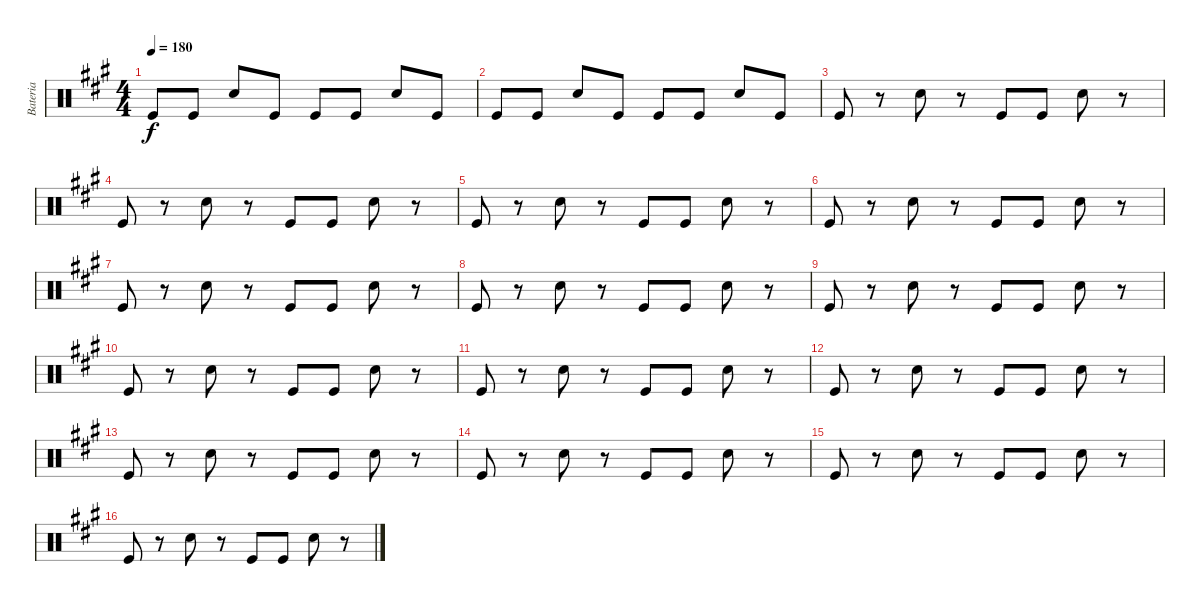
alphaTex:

\track ("Bateria" "Bateria") {instrument percussion}
\staff {score}
\articulation defaults
\ts (4 4)
\tempo 180
\clef neutral
\ks a "Kick (hit)".8{dy f} "Kick (hit)".8 "Electric Snare (hit)".8 "Kick (hit)".8 "Kick (hit)".8 "Kick (hit)".8 "Electric Snare (hit)".8 "Kick (hit)".8
|
"Kick (hit)".8 "Kick (hit)".8 "Electric Snare (hit)".8 "Kick (hit)".8 "Kick (hit)".8 "Kick (hit)".8 "Electric Snare (hit)".8 "Kick (hit)".8 |
"Kick (hit)".8 r.8 "Electric Snare (hit)".8 r.8 "Kick (hit)".8 "Kick (hit)".8 "Electric Snare (hit)".8 r.8 |
"Kick (hit)".8 r.8 "Electric Snare (hit)".8 r.8 "Kick (hit)".8 "Kick (hit)".8 "Electric Snare (hit)".8 r.8 |
"Kick (hit)".8 r.8 "Electric Snare (hit)".8 r.8 "Kick (hit)".8 "Kick (hit)".8 "Electric Snare (hit)".8 r.8 |
"Kick (hit)".8 r.8 "Electric Snare (hit)".8 r.8 "Kick (hit)".8 "Kick (hit)".8 "Electric Snare (hit)".8 r.8 |
"Kick (hit)".8 r.8 "Electric Snare (hit)".8 r.8 "Kick (hit)".8 "Kick (hit)".8 "Electric Snare (hit)".8 r.8 |
"Kick (hit)".8 r.8 "Electric Snare (hit)".8 r.8 "Kick (hit)".8 "Kick (hit)".8 "Electric Snare (hit)".8 r.8 |
"Kick (hit)".8 r.8 "Electric Snare (hit)".8 r.8 "Kick (hit)".8 "Kick (hit)".8 "Electric Snare (hit)".8 r.8 |
"Kick (hit)".8 r.8 "Electric Snare (hit)".8 r.8 "Kick (hit)".8 "Kick (hit)".8 "Electric Snare (hit)".8 r.8 |
"Kick (hit)".8 r.8 "Electric Snare (hit)".8 r.8 "Kick (hit)".8 "Kick (hit)".8 "Electric Snare (hit)".8 r.8 |
"Kick (hit)".8 r.8 "Electric Snare (hit)".8 r.8 "Kick (hit)".8 "Kick (hit)".8 "Electric Snare (hit)".8 r.8 |
"Kick (hit)".8 r.8 "Electric Snare (hit)".8 r.8 "Kick (hit)".8 "Kick (hit)".8 "Electric Snare (hit)".8 r.8 |
"Kick (hit)".8 r.8 "Electric Snare (hit)".8 r.8 "Kick (hit)".8 "Kick (hit)".8 "Electric Snare (hit)".8 r.8 |
"Kick (hit)".8 r.8 "Electric Snare (hit)".8 r.8 "Kick (hit)".8 "Kick (hit)".8 "Electric Snare (hit)".8 r.8 |
"Kick (hit)".8 r.8 "Electric Snare (hit)".8 r.8 "Kick (hit)".8 "Kick (hit)".8 "Electric Snare (hit)".8 r.8
